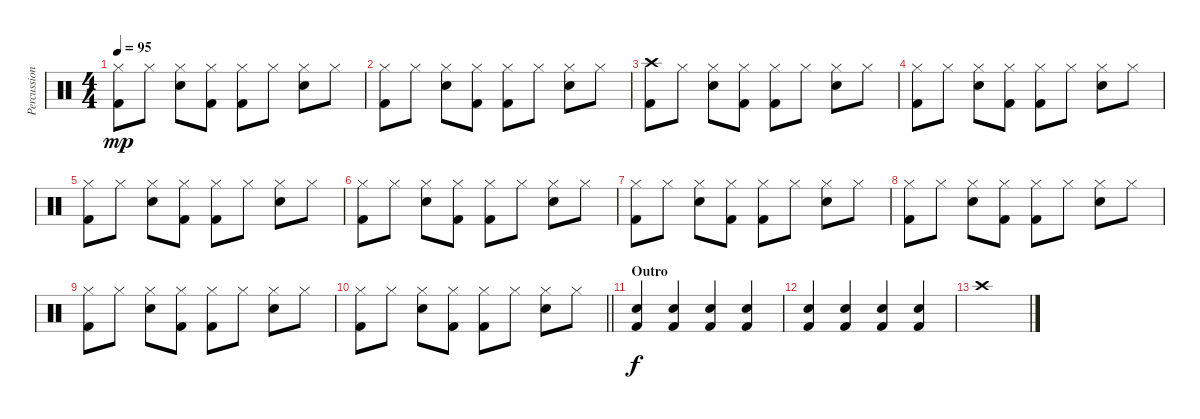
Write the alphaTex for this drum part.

\track ("Percussioni" "Percussion") {instrument percussion}
\staff {score}
\articulation defaults
\ts (4 4)
\tempo 95
\clef neutral
\ks c
("Hi-Hat (closed)" "Kick (hit) 2").8{dy mp} "Hi-Hat (closed)".8 ("Hi-Hat (closed)" "Snare (hit) 2").8 ("Hi-Hat (closed)" "Kick (hit) 2").8 ("Hi-Hat (closed)" "Kick (hit) 2").8 "Hi-Hat (closed)".8 ("Hi-Hat (closed)" "Snare (hit) 2").8 "Hi-Hat (closed)".8 |
("Hi-Hat (closed)" "Kick (hit) 2").8 "Hi-Hat (closed)".8 ("Hi-Hat (closed)" "Snare (hit) 2").8 ("Hi-Hat (closed)" "Kick (hit) 2").8 ("Hi-Hat (closed)" "Kick (hit) 2").8 "Hi-Hat (closed)".8 ("Hi-Hat (closed)" "Snare (hit) 2").8 "Hi-Hat (closed)".8 |
("Crash high (hit)" "Kick (hit) 2").8 "Hi-Hat (closed)".8 ("Hi-Hat (closed)" "Snare (hit) 2").8 ("Hi-Hat (closed)" "Kick (hit) 2").8 ("Hi-Hat (closed)" "Kick (hit) 2").8 "Hi-Hat (closed)".8 ("Hi-Hat (closed)" "Snare (hit) 2").8 "Hi-Hat (closed)".8 |
("Hi-Hat (closed)" "Kick (hit) 2").8 "Hi-Hat (closed)".8 ("Hi-Hat (closed)" "Snare (hit) 2").8 ("Hi-Hat (closed)" "Kick (hit) 2").8 ("Hi-Hat (closed)" "Kick (hit) 2").8 "Hi-Hat (closed)".8 ("Hi-Hat (closed)" "Snare (hit) 2").8 "Hi-Hat (closed)".8 |
("Hi-Hat (closed)" "Kick (hit) 2").8 "Hi-Hat (closed)".8 ("Hi-Hat (closed)" "Snare (hit) 2").8 ("Hi-Hat (closed)" "Kick (hit) 2").8 ("Hi-Hat (closed)" "Kick (hit) 2").8 "Hi-Hat (closed)".8 ("Hi-Hat (closed)" "Snare (hit) 2").8 "Hi-Hat (closed)".8 |
("Hi-Hat (closed)" "Kick (hit) 2").8 "Hi-Hat (closed)".8 ("Hi-Hat (closed)" "Snare (hit) 2").8 ("Hi-Hat (closed)" "Kick (hit) 2").8 ("Hi-Hat (closed)" "Kick (hit) 2").8 "Hi-Hat (closed)".8 ("Hi-Hat (closed)" "Snare (hit) 2").8 "Hi-Hat (closed)".8 |
("Hi-Hat (closed)" "Kick (hit) 2").8 "Hi-Hat (closed)".8 ("Hi-Hat (closed)" "Snare (hit) 2").8 ("Hi-Hat (closed)" "Kick (hit) 2").8 ("Hi-Hat (closed)" "Kick (hit) 2").8 "Hi-Hat (closed)".8 ("Hi-Hat (closed)" "Snare (hit) 2").8 "Hi-Hat (closed)".8 |
("Hi-Hat (closed)" "Kick (hit) 2").8 "Hi-Hat (closed)".8 ("Hi-Hat (closed)" "Snare (hit) 2").8 ("Hi-Hat (closed)" "Kick (hit) 2").8 ("Hi-Hat (closed)" "Kick (hit) 2").8 "Hi-Hat (closed)".8 ("Hi-Hat (closed)" "Snare (hit) 2").8 "Hi-Hat (closed)".8 |
("Hi-Hat (closed)" "Kick (hit) 2").8 "Hi-Hat (closed)".8 ("Hi-Hat (closed)" "Snare (hit) 2").8 ("Hi-Hat (closed)" "Kick (hit) 2").8 ("Hi-Hat (closed)" "Kick (hit) 2").8 "Hi-Hat (closed)".8 ("Hi-Hat (closed)" "Snare (hit) 2").8 "Hi-Hat (closed)".8 |
\barLineRight lightlight
("Hi-Hat (closed)" "Kick (hit) 2").8 "Hi-Hat (closed)".8 ("Hi-Hat (closed)" "Snare (hit) 2").8 ("Hi-Hat (closed)" "Kick (hit) 2").8 ("Hi-Hat (closed)" "Kick (hit) 2").8 "Hi-Hat (closed)".8 ("Hi-Hat (closed)" "Snare (hit) 2").8 "Hi-Hat (closed)".8 |
\section ("" "Outro")
("Snare (hit) 2" "Kick (hit) 2").4{dy f} ("Snare (hit) 2" "Kick (hit) 2").4 ("Snare (hit) 2" "Kick (hit) 2").4 ("Snare (hit) 2" "Kick (hit) 2").4 |
("Snare (hit) 2" "Kick (hit) 2").4 ("Snare (hit) 2" "Kick (hit) 2").4 ("Snare (hit) 2" "Kick (hit) 2").4 ("Snare (hit) 2" "Kick (hit) 2").4 |
"Crash high (hit)".1
